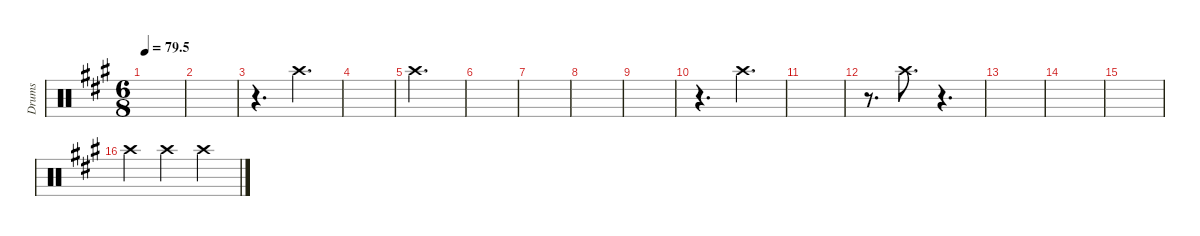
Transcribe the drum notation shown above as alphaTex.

\defaultSystemsLayout 4
\hideDynamics
\bracketExtendMode nobrackets
\otherSystemsTrackNameOrientation horizontal
\track ("Left crash" "Drums") {instrument percussion}
\staff {score}
\articulation defaults
\ts (6 8)
\tempo
79.5
\accidentals auto
\clef neutral
\ottava regular
\simile none
\scale
0.333333
\ks a
|
\scale
0.333333 |
\scale
0.333333 r.4{d} "Crash high (hit)"{acc forcenatural}.4{d} |
\scale
0.333333 |
\scale
0.333333 "Crash high (hit)"{acc forcenatural}.2{d} |
\scale
0.333333 |
\scale
0.333333 |
\scale
0.333333 |
\scale
0.333333 |
\scale
0.333333 r.4{d} "Crash high (hit)"{acc forcenatural}.4{d} |
\scale
0.333333 |
\scale
0.333333 r.8{d} "Crash high (hit)"{acc forcenatural}.8{d} r.4{d} |
\scale
0.333333 |
\scale
0.333333 |
\scale
0.333333 |
\scale
0.333333 "Crash high (hit)"{acc forcenatural}.4 "Crash high (hit)"{acc forcenatural}.4 "Crash high (hit)"{acc forcenatural}.4
